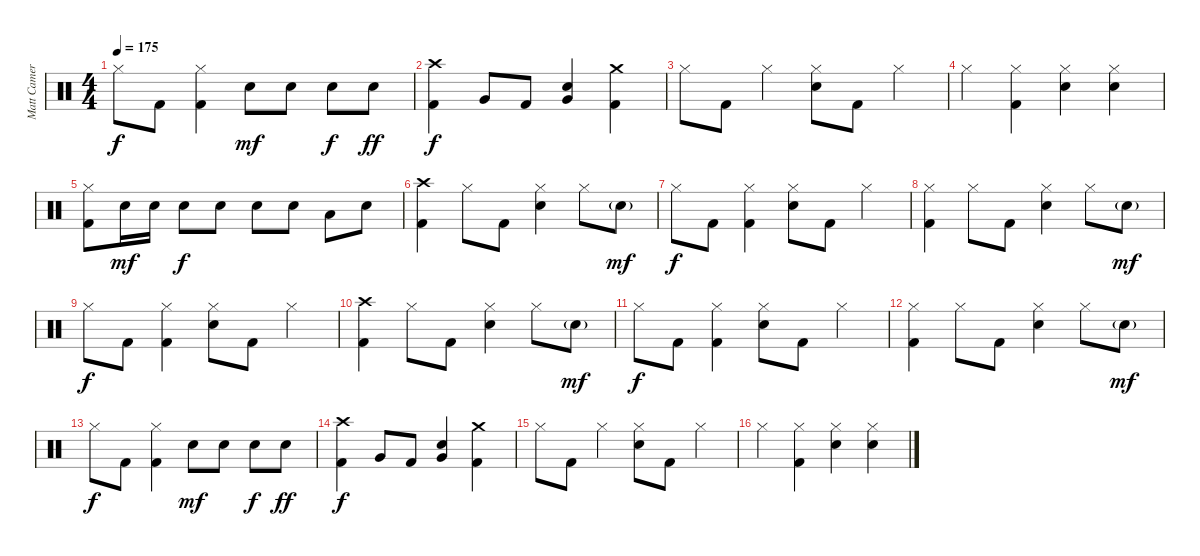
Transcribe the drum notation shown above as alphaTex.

\track ("Matt Cameron Drum" "Matt Camer") {instrument percussion}
\staff {score}
\articulation defaults
\ts (4 4)
\tempo 175
\clef neutral
\ks c "Hi-Hat (closed)".8{dy f} "Kick (hit) 2".8
("Hi-Hat (closed)" "Kick (hit) 2").4 "Electric Snare (hit)".8{dy mf} "Electric Snare (hit)".8 "Electric Snare (hit)".8{dy f} "Electric Snare (hit)".8{dy ff} |
("Crash high (hit)" "Kick (hit) 2").4{dy f} "Very Low Tom (hit)".8 "Kick (hit) 2".8 ("Very Low Tom (hit)" "Electric Snare (hit)").4 ("Crash medium (hit)" "Kick (hit) 2").4 |
"Hi-Hat (closed)".8 "Kick (hit) 2".8 "Hi-Hat (closed)".4 ("Hi-Hat (closed)" "Electric Snare (hit)").8 "Kick (hit) 2".8 "Hi-Hat (closed)".4 |
"Hi-Hat (closed)".4 ("Hi-Hat (closed)" "Kick (hit) 2").4 ("Hi-Hat (closed)" "Electric Snare (hit)").4 ("Hi-Hat (closed)" "Electric Snare (hit)").4 |
("Hi-Hat (closed)" "Kick (hit) 2").8 "Electric Snare (hit)".16{dy mf} "Electric Snare (hit)".16 "Electric Snare (hit)".8{dy f} "Electric Snare (hit)".8 "Electric Snare (hit)".8 "Electric Snare (hit)".8 "Low Tom (hit)".8 "Electric Snare (hit)".8 |
("Crash high (hit)" "Kick (hit) 2").4 "Hi-Hat (closed)".8 "Kick (hit) 2".8 ("Hi-Hat (closed)" "Electric Snare (hit)").4 "Hi-Hat (closed)".8 "Electric Snare (hit)"{g}.8{dy mf} |
"Hi-Hat (closed)".8{dy f} "Kick (hit) 2".8 ("Hi-Hat (closed)" "Kick (hit) 2").4 ("Hi-Hat (closed)" "Electric Snare (hit)").8 "Kick (hit) 2".8 "Hi-Hat (closed)".4 |
("Hi-Hat (closed)" "Kick (hit) 2").4 "Hi-Hat (closed)".8 "Kick (hit) 2".8 ("Hi-Hat (closed)" "Electric Snare (hit)").4 "Hi-Hat (closed)".8 "Electric Snare (hit)"{g}.8{dy mf} |
"Hi-Hat (closed)".8{dy f} "Kick (hit) 2".8 ("Hi-Hat (closed)" "Kick (hit) 2").4 ("Hi-Hat (closed)" "Electric Snare (hit)").8 "Kick (hit) 2".8 "Hi-Hat (closed)".4 |
("Crash high (hit)" "Kick (hit) 2").4 "Hi-Hat (closed)".8 "Kick (hit) 2".8 ("Hi-Hat (closed)" "Electric Snare (hit)").4 "Hi-Hat (closed)".8 "Electric Snare (hit)"{g}.8{dy mf} |
"Hi-Hat (closed)".8{dy f} "Kick (hit) 2".8 ("Hi-Hat (closed)" "Kick (hit) 2").4 ("Hi-Hat (closed)" "Electric Snare (hit)").8 "Kick (hit) 2".8 "Hi-Hat (closed)".4 |
("Hi-Hat (closed)" "Kick (hit) 2").4 "Hi-Hat (closed)".8 "Kick (hit) 2".8 ("Hi-Hat (closed)" "Electric Snare (hit)").4 "Hi-Hat (closed)".8 "Electric Snare (hit)"{g}.8{dy mf} |
"Hi-Hat (closed)".8{dy f} "Kick (hit) 2".8 ("Hi-Hat (closed)" "Kick (hit) 2").4 "Electric Snare (hit)".8{dy mf} "Electric Snare (hit)".8 "Electric Snare (hit)".8{dy f} "Electric Snare (hit)".8{dy ff} |
("Crash high (hit)" "Kick (hit) 2").4{dy f} "Very Low Tom (hit)".8 "Kick (hit) 2".8 ("Very Low Tom (hit)" "Electric Snare (hit)").4 ("Crash medium (hit)" "Kick (hit) 2").4 |
"Hi-Hat (closed)".8 "Kick (hit) 2".8 "Hi-Hat (closed)".4 ("Hi-Hat (closed)" "Electric Snare (hit)").8 "Kick (hit) 2".8 "Hi-Hat (closed)".4 |
"Hi-Hat (closed)".4 ("Hi-Hat (closed)" "Kick (hit) 2").4 ("Hi-Hat (closed)" "Electric Snare (hit)").4 ("Hi-Hat (closed)" "Electric Snare (hit)").4
